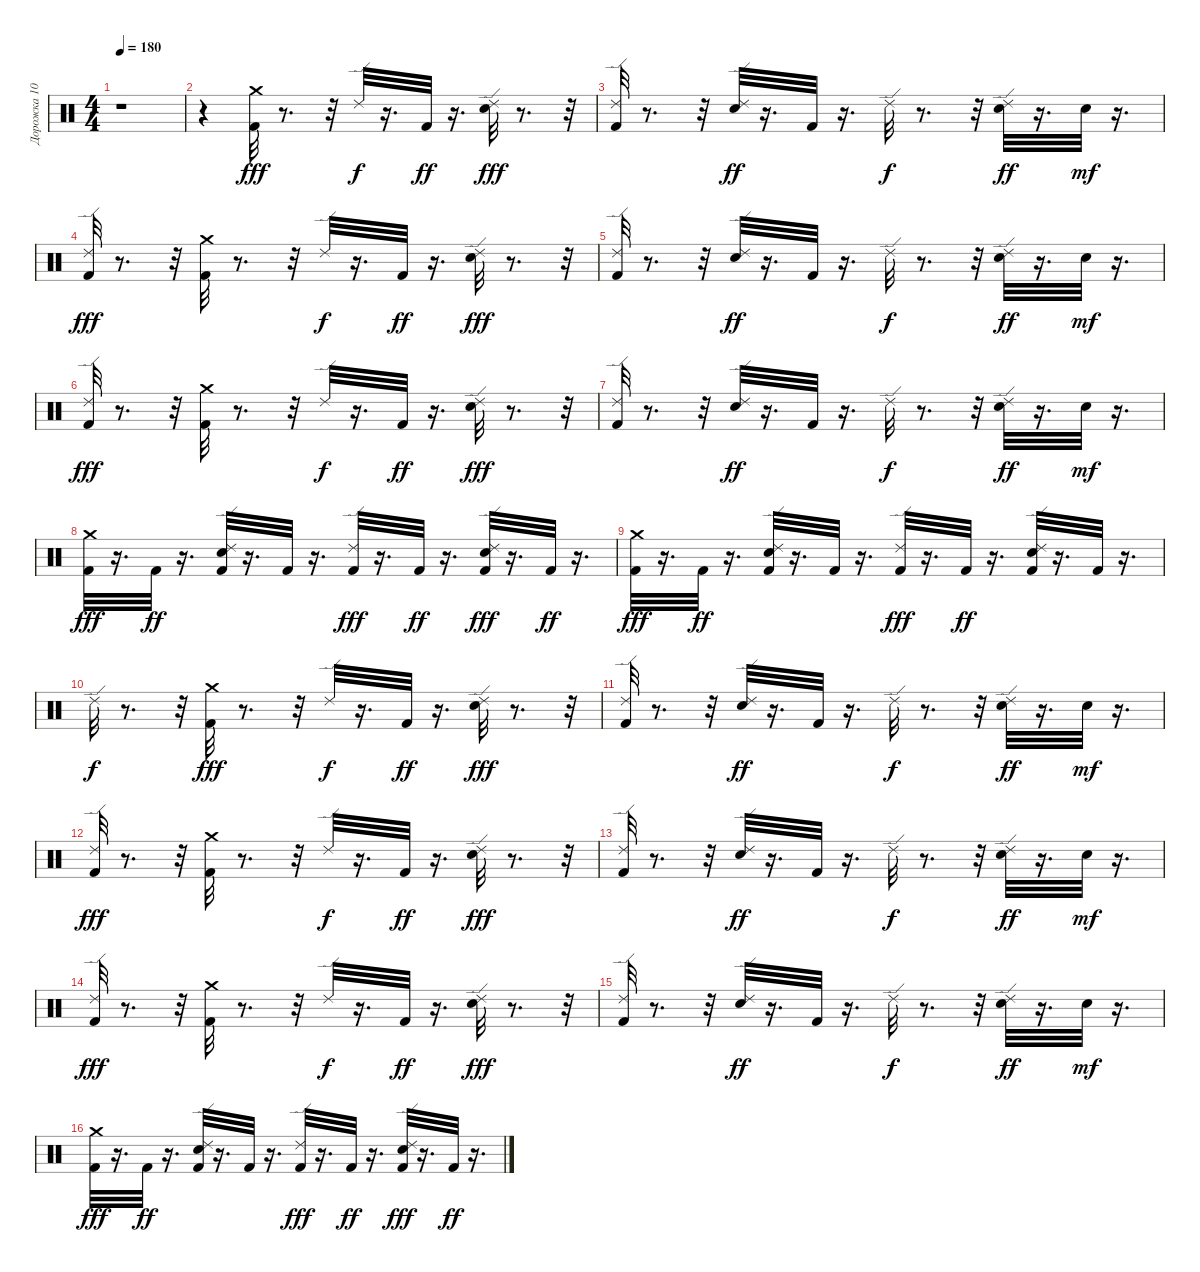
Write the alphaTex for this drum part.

\track ("Дорожка 10" "Дорожка 10") {instrument percussion}
\staff {score}
\articulation defaults
\ts (4 4)
\tempo 180
\clef neutral
\ks c
r.1{dy mp} |
r.4 ("Kick (hit) 2" "Crash medium (hit)").32{dy fff} r.8{d} r.32 "Ride (edge) 2".32{dy f} r.16{d} "Kick (hit) 2".32{dy ff} r.16{d} ("Snare (hit) 2" "Ride (edge) 2").32{dy fff} r.8{d} r.32 |
("Kick (hit) 2" "Ride (edge) 2").32 r.8{d} r.32 ("Snare (hit) 2" "Ride (edge) 2").32{dy ff} r.16{d} "Kick (hit) 2".32 r.16{d} "Ride (edge) 2".32{dy f} r.8{d} r.32 ("Snare (hit) 2" "Ride (edge) 2").32{dy ff} r.16{d} "Snare (hit) 2".32{dy mf} r.16{d} |
("Ride (edge) 2" "Kick (hit) 2").32{dy fff} r.8{d} r.32 ("Kick (hit) 2" "Crash medium (hit)").32 r.8{d} r.32 "Ride (edge) 2".32{dy f} r.16{d} "Kick (hit) 2".32{dy ff} r.16{d} ("Snare (hit) 2" "Ride (edge) 2").32{dy fff} r.8{d} r.32 |
("Kick (hit) 2" "Ride (edge) 2").32 r.8{d} r.32 ("Snare (hit) 2" "Ride (edge) 2").32{dy ff} r.16{d} "Kick (hit) 2".32 r.16{d} "Ride (edge) 2".32{dy f} r.8{d} r.32 ("Snare (hit) 2" "Ride (edge) 2").32{dy ff} r.16{d} "Snare (hit) 2".32{dy mf} r.16{d} |
("Ride (edge) 2" "Kick (hit) 2").32{dy fff} r.8{d} r.32 ("Kick (hit) 2" "Crash medium (hit)").32 r.8{d} r.32 "Ride (edge) 2".32{dy f} r.16{d} "Kick (hit) 2".32{dy ff} r.16{d} ("Snare (hit) 2" "Ride (edge) 2").32{dy fff} r.8{d} r.32 |
("Kick (hit) 2" "Ride (edge) 2").32 r.8{d} r.32 ("Snare (hit) 2" "Ride (edge) 2").32{dy ff} r.16{d} "Kick (hit) 2".32 r.16{d} "Ride (edge) 2".32{dy f} r.8{d} r.32 ("Snare (hit) 2" "Ride (edge) 2").32{dy ff} r.16{d} "Snare (hit) 2".32{dy mf} r.16{d} |
("Crash medium (hit)" "Kick (hit) 2").32{dy fff} r.16{d} "Kick (hit) 2".32{dy ff} r.16{d} ("Kick (hit) 2" "Snare (hit) 2" "Ride (edge) 2").32 r.16{d} "Kick (hit) 2".32 r.16{d} ("Kick (hit) 2" "Ride (edge) 2").32{dy fff} r.16{d} "Kick (hit) 2".32{dy ff} r.16{d} ("Kick (hit) 2" "Snare (hit) 2" "Ride (edge) 2").32{dy fff} r.16{d} "Kick (hit) 2".32{dy ff} r.16{d} |
("Kick (hit) 2" "Crash medium (hit)").32{dy fff} r.16{d} "Kick (hit) 2".32{dy ff} r.16{d} ("Kick (hit) 2" "Snare (hit) 2" "Ride (edge) 2").32 r.16{d} "Kick (hit) 2".32 r.16{d} ("Kick (hit) 2" "Ride (edge) 2").32{dy fff} r.16{d} "Kick (hit) 2".32{dy ff} r.16{d} ("Kick (hit) 2" "Snare (hit) 2" "Ride (edge) 2").32 r.16{d} "Kick (hit) 2".32 r.16{d} |
"Ride (edge) 2".32{dy f} r.8{d} r.32 ("Kick (hit) 2" "Crash medium (hit)").32{dy fff} r.8{d} r.32 "Ride (edge) 2".32{dy f} r.16{d} "Kick (hit) 2".32{dy ff} r.16{d} ("Snare (hit) 2" "Ride (edge) 2").32{dy fff} r.8{d} r.32 |
("Kick (hit) 2" "Ride (edge) 2").32 r.8{d} r.32 ("Snare (hit) 2" "Ride (edge) 2").32{dy ff} r.16{d} "Kick (hit) 2".32 r.16{d} "Ride (edge) 2".32{dy f} r.8{d} r.32 ("Snare (hit) 2" "Ride (edge) 2").32{dy ff} r.16{d} "Snare (hit) 2".32{dy mf} r.16{d} |
("Ride (edge) 2" "Kick (hit) 2").32{dy fff} r.8{d} r.32 ("Kick (hit) 2" "Crash medium (hit)").32 r.8{d} r.32 "Ride (edge) 2".32{dy f} r.16{d} "Kick (hit) 2".32{dy ff} r.16{d} ("Snare (hit) 2" "Ride (edge) 2").32{dy fff} r.8{d} r.32 |
("Kick (hit) 2" "Ride (edge) 2").32 r.8{d} r.32 ("Snare (hit) 2" "Ride (edge) 2").32{dy ff} r.16{d} "Kick (hit) 2".32 r.16{d} "Ride (edge) 2".32{dy f} r.8{d} r.32 ("Snare (hit) 2" "Ride (edge) 2").32{dy ff} r.16{d} "Snare (hit) 2".32{dy mf} r.16{d} |
("Ride (edge) 2" "Kick (hit) 2").32{dy fff} r.8{d} r.32 ("Kick (hit) 2" "Crash medium (hit)").32 r.8{d} r.32 "Ride (edge) 2".32{dy f} r.16{d} "Kick (hit) 2".32{dy ff} r.16{d} ("Snare (hit) 2" "Ride (edge) 2").32{dy fff} r.8{d} r.32 |
("Kick (hit) 2" "Ride (edge) 2").32 r.8{d} r.32 ("Snare (hit) 2" "Ride (edge) 2").32{dy ff} r.16{d} "Kick (hit) 2".32 r.16{d} "Ride (edge) 2".32{dy f} r.8{d} r.32 ("Snare (hit) 2" "Ride (edge) 2").32{dy ff} r.16{d} "Snare (hit) 2".32{dy mf} r.16{d} |
("Crash medium (hit)" "Kick (hit) 2").32{dy fff} r.16{d} "Kick (hit) 2".32{dy ff} r.16{d} ("Kick (hit) 2" "Snare (hit) 2" "Ride (edge) 2").32 r.16{d} "Kick (hit) 2".32 r.16{d} ("Kick (hit) 2" "Ride (edge) 2").32{dy fff} r.16{d} "Kick (hit) 2".32{dy ff} r.16{d} ("Kick (hit) 2" "Snare (hit) 2" "Ride (edge) 2").32{dy fff} r.16{d} "Kick (hit) 2".32{dy ff} r.16{d}
